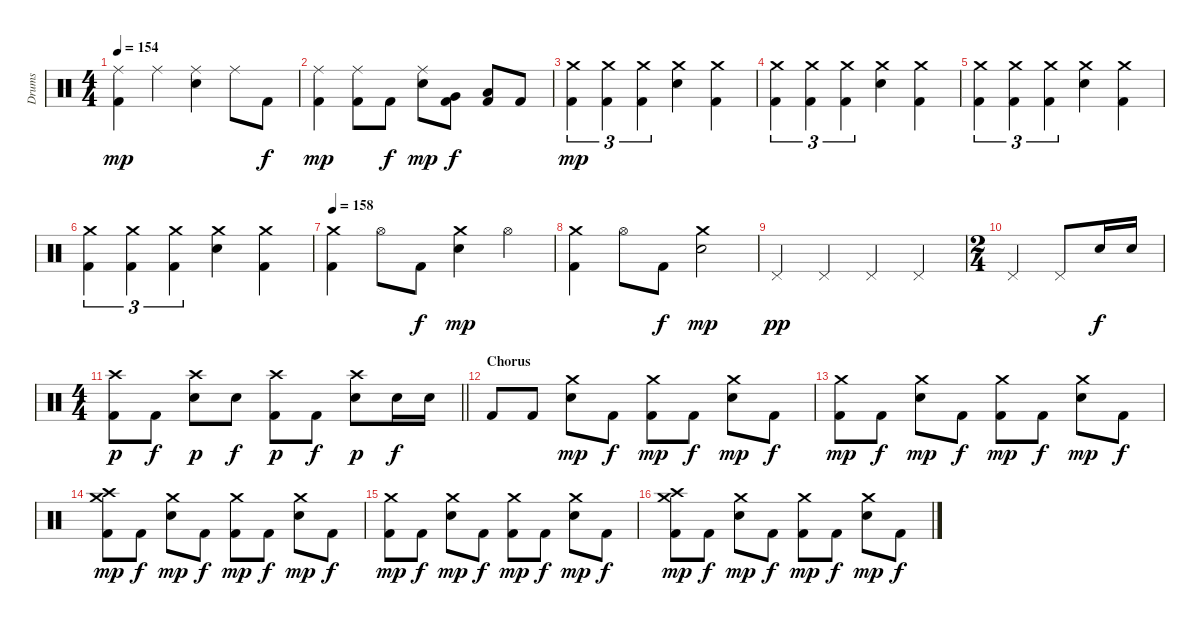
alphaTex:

\track ("Drums" "Drums") {instrument percussion}
\staff {score}
\articulation defaults
\ts (4 4)
\tempo 154
\clef neutral
\ks c
("Ride (middle)" "Kick (hit) 2").4{dy mp} "Ride (middle)".4 ("Ride (middle)" "Electric Snare (hit)").4 "Ride (middle)".8 "Kick (hit) 2".8{dy f} |
("Ride (middle)" "Kick (hit) 2").4{dy mp} ("Ride (middle)" "Kick (hit) 2").8 "Kick (hit) 2".8{dy f} ("Ride (middle)" "Electric Snare (hit)").8{dy mp} ("Very Low Tom (hit)" "Kick (hit) 2").8{dy f} ("Low Floor Tom (hit)" "Kick (hit) 2").8 "Kick (hit) 2".8 |
("Crash medium (hit)" "Kick (hit) 2").4{tu (3 2) dy mp} ("Crash medium (hit)" "Kick (hit) 2").4{tu (3 2)} ("Crash medium (hit)" "Kick (hit) 2").4{tu (3 2)} ("Crash medium (hit)" "Electric Snare (hit)").4 ("Crash medium (hit)" "Kick (hit) 2").4 |
("Crash medium (hit)" "Kick (hit) 2").4{tu (3 2)} ("Crash medium (hit)" "Kick (hit) 2").4{tu (3 2)} ("Crash medium (hit)" "Kick (hit) 2").4{tu (3 2)} ("Crash medium (hit)" "Electric Snare (hit)").4 ("Crash medium (hit)" "Kick (hit) 2").4 |
("Crash medium (hit)" "Kick (hit) 2").4{tu (3 2)} ("Crash medium (hit)" "Kick (hit) 2").4{tu (3 2)} ("Crash medium (hit)" "Kick (hit) 2").4{tu (3 2)} ("Crash medium (hit)" "Electric Snare (hit)").4 ("Crash medium (hit)" "Kick (hit) 2").4 |
("Crash medium (hit)" "Kick (hit) 2").4{tu (3 2)} ("Crash medium (hit)" "Kick (hit) 2").4{tu (3 2)} ("Crash medium (hit)" "Kick (hit) 2").4{tu (3 2)} ("Crash medium (hit)" "Electric Snare (hit)").4 ("Crash medium (hit)" "Kick (hit) 2").4 |
\tempo 158
("Crash medium (hit)" "Kick (hit) 2").4 "Hi-Hat (open)".8 "Kick (hit) 2".8{dy f} ("Crash medium (hit)" "Electric Snare (hit)").4{dy mp} "Hi-Hat (open)".4 |
("Crash medium (hit)" "Kick (hit) 2").4 "Hi-Hat (open)".8 "Kick (hit) 2".8{dy f} ("Crash medium (hit)" "Electric Snare (hit)").2{dy mp} |
"Pedal Hi-Hat (hit)".4{dy pp} "Pedal Hi-Hat (hit)".4 "Pedal Hi-Hat (hit)".4 "Pedal Hi-Hat (hit)".4 |
\ts (2 4)
"Pedal Hi-Hat (hit)".4 "Pedal Hi-Hat (hit)".8 "Electric Snare (hit)".16{dy f} "Electric Snare (hit)".16 |
\ts (4 4)
\barLineRight lightlight
("Crash high (hit)" "Kick (hit) 2").8{dy p} "Kick (hit) 2".8{dy f} ("Crash high (hit)" "Electric Snare (hit)").8{dy p} "Electric Snare (hit)".8{dy f} ("Crash high (hit)" "Kick (hit) 2").8{dy p} "Kick (hit) 2".8{dy f} ("Crash high (hit)" "Electric Snare (hit)").8{dy p} "Electric Snare (hit)".16{dy f} "Electric Snare (hit)".16 |
\section ("" "Chorus")
"Kick (hit) 2".8 "Kick (hit) 2".8 ("Crash medium (hit)" "Electric Snare (hit)").8{dy mp} "Kick (hit) 2".8{dy f} ("Crash medium (hit)" "Kick (hit) 2").8{dy mp} "Kick (hit) 2".8{dy f} ("Crash medium (hit)" "Electric Snare (hit)").8{dy mp} "Kick (hit) 2".8{dy f} |
("Crash medium (hit)" "Kick (hit) 2").8{dy mp} "Kick (hit) 2".8{dy f} ("Crash medium (hit)" "Electric Snare (hit)").8{dy mp} "Kick (hit) 2".8{dy f} ("Crash medium (hit)" "Kick (hit) 2").8{dy mp} "Kick (hit) 2".8{dy f} ("Crash medium (hit)" "Electric Snare (hit)").8{dy mp} "Kick (hit) 2".8{dy f} |
("Crash high (hit)" "Crash medium (hit)" "Kick (hit) 2").8{dy mp} "Kick (hit) 2".8{dy f} ("Crash medium (hit)" "Electric Snare (hit)").8{dy mp} "Kick (hit) 2".8{dy f} ("Crash medium (hit)" "Kick (hit) 2").8{dy mp} "Kick (hit) 2".8{dy f} ("Crash medium (hit)" "Electric Snare (hit)").8{dy mp} "Kick (hit) 2".8{dy f} |
("Crash medium (hit)" "Kick (hit) 2").8{dy mp} "Kick (hit) 2".8{dy f} ("Crash medium (hit)" "Electric Snare (hit)").8{dy mp} "Kick (hit) 2".8{dy f} ("Crash medium (hit)" "Kick (hit) 2").8{dy mp} "Kick (hit) 2".8{dy f} ("Crash medium (hit)" "Electric Snare (hit)").8{dy mp} "Kick (hit) 2".8{dy f} |
("Crash high (hit)" "Crash medium (hit)" "Kick (hit) 2").8{dy mp} "Kick (hit) 2".8{dy f} ("Crash medium (hit)" "Electric Snare (hit)").8{dy mp} "Kick (hit) 2".8{dy f} ("Crash medium (hit)" "Kick (hit) 2").8{dy mp} "Kick (hit) 2".8{dy f} ("Crash medium (hit)" "Electric Snare (hit)").8{dy mp} "Kick (hit) 2".8{dy f}
